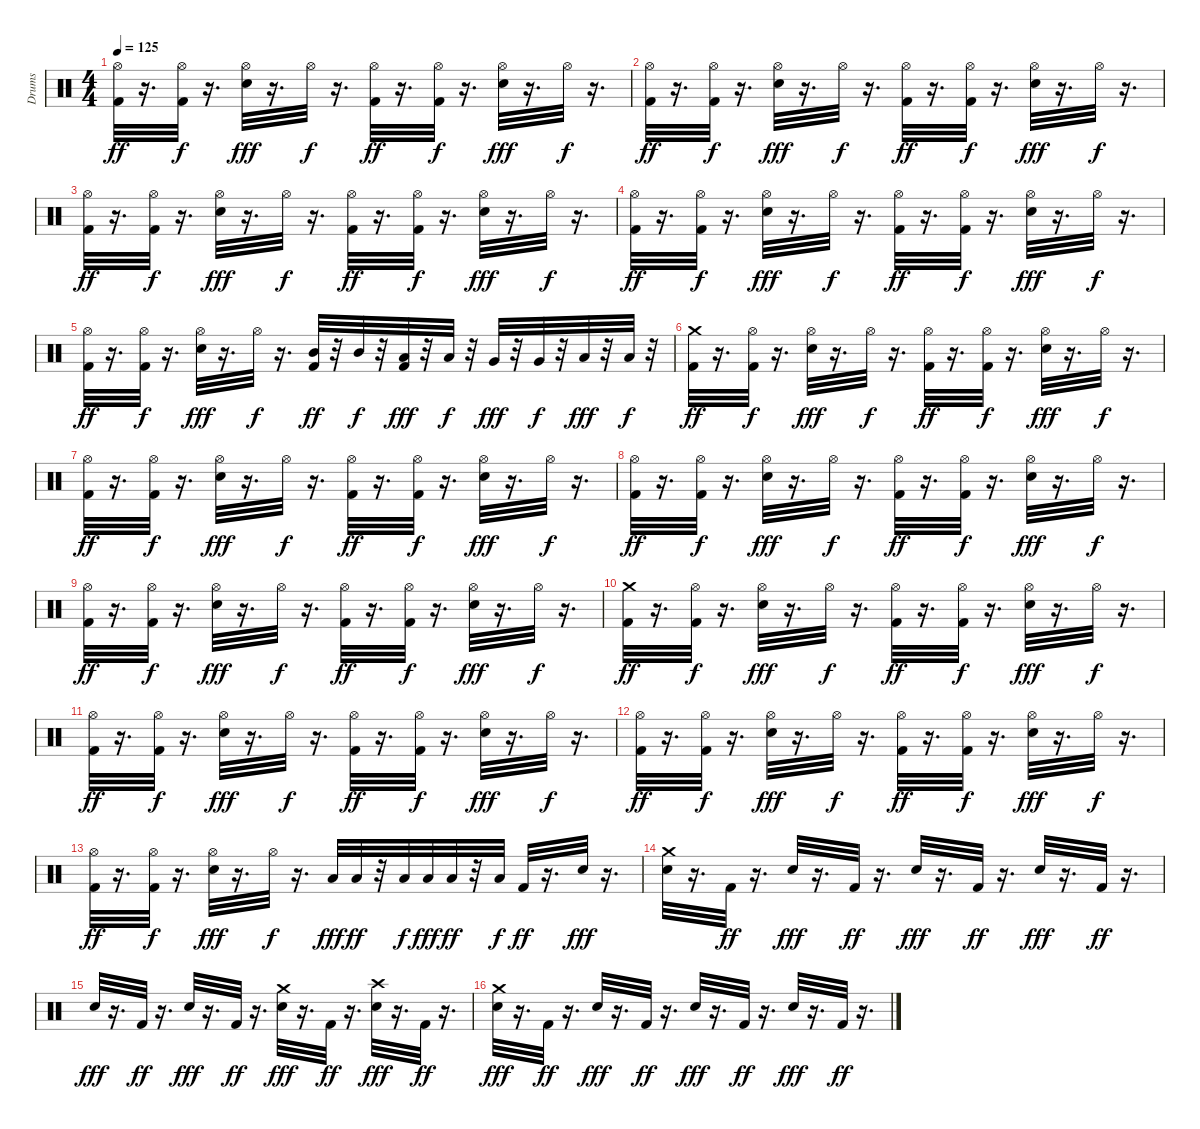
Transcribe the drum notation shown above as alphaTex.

\track ("Drums" "Drums") {instrument percussion}
\staff {score}
\articulation defaults
\ts (4 4)
\tempo 125
\clef neutral
\ks c
("Kick (hit) 2" "Hi-Hat (open)").32{dy ff} r.16{d} ("Kick (hit) 2" "Hi-Hat (open)").32{dy f} r.16{d} ("Snare (hit) 2" "Hi-Hat (open)").32{dy fff} r.16{d} "Hi-Hat (open)".32{dy f} r.16{d} ("Kick (hit) 2" "Hi-Hat (open)").32{dy ff} r.16{d} ("Kick (hit) 2" "Hi-Hat (open)").32{dy f} r.16{d} ("Snare (hit) 2" "Hi-Hat (open)").32{dy fff} r.16{d} "Hi-Hat (open)".32{dy f} r.16{d} |
("Kick (hit) 2" "Hi-Hat (open)").32{dy ff} r.16{d} ("Kick (hit) 2" "Hi-Hat (open)").32{dy f} r.16{d} ("Snare (hit) 2" "Hi-Hat (open)").32{dy fff} r.16{d} "Hi-Hat (open)".32{dy f} r.16{d} ("Kick (hit) 2" "Hi-Hat (open)").32{dy ff} r.16{d} ("Kick (hit) 2" "Hi-Hat (open)").32{dy f} r.16{d} ("Snare (hit) 2" "Hi-Hat (open)").32{dy fff} r.16{d} "Hi-Hat (open)".32{dy f} r.16{d} |
("Kick (hit) 2" "Hi-Hat (open)").32{dy ff} r.16{d} ("Kick (hit) 2" "Hi-Hat (open)").32{dy f} r.16{d} ("Snare (hit) 2" "Hi-Hat (open)").32{dy fff} r.16{d} "Hi-Hat (open)".32{dy f} r.16{d} ("Kick (hit) 2" "Hi-Hat (open)").32{dy ff} r.16{d} ("Kick (hit) 2" "Hi-Hat (open)").32{dy f} r.16{d} ("Snare (hit) 2" "Hi-Hat (open)").32{dy fff} r.16{d} "Hi-Hat (open)".32{dy f} r.16{d} |
("Kick (hit) 2" "Hi-Hat (open)").32{dy ff} r.16{d} ("Kick (hit) 2" "Hi-Hat (open)").32{dy f} r.16{d} ("Snare (hit) 2" "Hi-Hat (open)").32{dy fff} r.16{d} "Hi-Hat (open)".32{dy f} r.16{d} ("Kick (hit) 2" "Hi-Hat (open)").32{dy ff} r.16{d} ("Kick (hit) 2" "Hi-Hat (open)").32{dy f} r.16{d} ("Snare (hit) 2" "Hi-Hat (open)").32{dy fff} r.16{d} "Hi-Hat (open)".32{dy f} r.16{d} |
("Kick (hit) 2" "Hi-Hat (open)").32{dy ff} r.16{d} ("Kick (hit) 2" "Hi-Hat (open)").32{dy f} r.16{d} ("Snare (hit) 2" "Hi-Hat (open)").32{dy fff} r.16{d} "Hi-Hat (open)".32{dy f} r.16{d} ("Mid Tom (hit)" "Kick (hit) 2").32{dy ff} r.32 "Mid Tom (hit)".32{dy f} r.32 ("Low Tom (hit)" "Kick (hit) 2").32{dy fff} r.32 "Low Tom (hit)".32{dy f} r.32 "Very Low Tom (hit)".32{dy fff} r.32 "Very Low Tom (hit)".32{dy f} r.32 "Low Floor Tom (hit)".32{dy fff} r.32 "Low Floor Tom (hit)".32{dy f} r.32 |
("Crash medium (hit)" "Kick (hit) 2").32{dy ff} r.16{d} ("Kick (hit) 2" "Hi-Hat (open)").32{dy f} r.16{d} ("Snare (hit) 2" "Hi-Hat (open)").32{dy fff} r.16{d} "Hi-Hat (open)".32{dy f} r.16{d} ("Kick (hit) 2" "Hi-Hat (open)").32{dy ff} r.16{d} ("Kick (hit) 2" "Hi-Hat (open)").32{dy f} r.16{d} ("Snare (hit) 2" "Hi-Hat (open)").32{dy fff} r.16{d} "Hi-Hat (open)".32{dy f} r.16{d} |
("Kick (hit) 2" "Hi-Hat (open)").32{dy ff} r.16{d} ("Kick (hit) 2" "Hi-Hat (open)").32{dy f} r.16{d} ("Snare (hit) 2" "Hi-Hat (open)").32{dy fff} r.16{d} "Hi-Hat (open)".32{dy f} r.16{d} ("Kick (hit) 2" "Hi-Hat (open)").32{dy ff} r.16{d} ("Kick (hit) 2" "Hi-Hat (open)").32{dy f} r.16{d} ("Snare (hit) 2" "Hi-Hat (open)").32{dy fff} r.16{d} "Hi-Hat (open)".32{dy f} r.16{d} |
("Kick (hit) 2" "Hi-Hat (open)").32{dy ff} r.16{d} ("Kick (hit) 2" "Hi-Hat (open)").32{dy f} r.16{d} ("Snare (hit) 2" "Hi-Hat (open)").32{dy fff} r.16{d} "Hi-Hat (open)".32{dy f} r.16{d} ("Kick (hit) 2" "Hi-Hat (open)").32{dy ff} r.16{d} ("Kick (hit) 2" "Hi-Hat (open)").32{dy f} r.16{d} ("Snare (hit) 2" "Hi-Hat (open)").32{dy fff} r.16{d} "Hi-Hat (open)".32{dy f} r.16{d} |
("Kick (hit) 2" "Hi-Hat (open)").32{dy ff} r.16{d} ("Kick (hit) 2" "Hi-Hat (open)").32{dy f} r.16{d} ("Snare (hit) 2" "Hi-Hat (open)").32{dy fff} r.16{d} "Hi-Hat (open)".32{dy f} r.16{d} ("Kick (hit) 2" "Hi-Hat (open)").32{dy ff} r.16{d} ("Kick (hit) 2" "Hi-Hat (open)").32{dy f} r.16{d} ("Snare (hit) 2" "Hi-Hat (open)").32{dy fff} r.16{d} "Hi-Hat (open)".32{dy f} r.16{d} |
("Crash medium (hit)" "Kick (hit) 2").32{dy ff} r.16{d} ("Kick (hit) 2" "Hi-Hat (open)").32{dy f} r.16{d} ("Snare (hit) 2" "Hi-Hat (open)").32{dy fff} r.16{d} "Hi-Hat (open)".32{dy f} r.16{d} ("Kick (hit) 2" "Hi-Hat (open)").32{dy ff} r.16{d} ("Kick (hit) 2" "Hi-Hat (open)").32{dy f} r.16{d} ("Snare (hit) 2" "Hi-Hat (open)").32{dy fff} r.16{d} "Hi-Hat (open)".32{dy f} r.16{d} |
("Kick (hit) 2" "Hi-Hat (open)").32{dy ff} r.16{d} ("Kick (hit) 2" "Hi-Hat (open)").32{dy f} r.16{d} ("Snare (hit) 2" "Hi-Hat (open)").32{dy fff} r.16{d} "Hi-Hat (open)".32{dy f} r.16{d} ("Kick (hit) 2" "Hi-Hat (open)").32{dy ff} r.16{d} ("Kick (hit) 2" "Hi-Hat (open)").32{dy f} r.16{d} ("Snare (hit) 2" "Hi-Hat (open)").32{dy fff} r.16{d} "Hi-Hat (open)".32{dy f} r.16{d} |
("Kick (hit) 2" "Hi-Hat (open)").32{dy ff} r.16{d} ("Kick (hit) 2" "Hi-Hat (open)").32{dy f} r.16{d} ("Snare (hit) 2" "Hi-Hat (open)").32{dy fff} r.16{d} "Hi-Hat (open)".32{dy f} r.16{d} ("Kick (hit) 2" "Hi-Hat (open)").32{dy ff} r.16{d} ("Kick (hit) 2" "Hi-Hat (open)").32{dy f} r.16{d} ("Snare (hit) 2" "Hi-Hat (open)").32{dy fff} r.16{d} "Hi-Hat (open)".32{dy f} r.16{d} |
("Kick (hit) 2" "Hi-Hat (open)").32{dy ff} r.16{d} ("Kick (hit) 2" "Hi-Hat (open)").32{dy f} r.16{d} ("Snare (hit) 2" "Hi-Hat (open)").32{dy fff} r.16{d} "Hi-Hat (open)".32{dy f} r.16{d} "Low Tom (hit)".32{dy fff} "Low Tom (hit)".32{dy ff} r.32 "Low Tom (hit)".32{dy f} "Low Floor Tom (hit)".32{dy fff} "Low Floor Tom (hit)".32{dy ff} r.32 "Low Floor Tom (hit)".32{dy f} "Kick (hit) 2".32{dy ff} r.16{d} "Snare (hit) 2".32{dy fff} r.16{d} |
("Crash medium (hit)" "Snare (hit) 2").32 r.16{d} "Kick (hit) 2".32{dy ff} r.16{d} "Snare (hit) 2".32{dy fff} r.16{d} "Kick (hit) 2".32{dy ff} r.16{d} "Snare (hit) 2".32{dy fff} r.16{d} "Kick (hit) 2".32{dy ff} r.16{d} "Snare (hit) 2".32{dy fff} r.16{d} "Kick (hit) 2".32{dy ff} r.16{d} |
"Snare (hit) 2".32{dy fff} r.16{d} "Kick (hit) 2".32{dy ff} r.16{d} "Snare (hit) 2".32{dy fff} r.16{d} "Kick (hit) 2".32{dy ff} r.16{d} ("Crash medium (hit)" "Snare (hit) 2").32{dy fff} r.16{d} "Kick (hit) 2".32{dy ff} r.16{d} ("Crash high (hit)" "Snare (hit) 2").32{dy fff} r.16{d} "Kick (hit) 2".32{dy ff} r.16{d} |
("Snare (hit) 2" "Crash medium (hit)").32{dy fff} r.16{d} "Kick (hit) 2".32{dy ff} r.16{d} "Snare (hit) 2".32{dy fff} r.16{d} "Kick (hit) 2".32{dy ff} r.16{d} "Snare (hit) 2".32{dy fff} r.16{d} "Kick (hit) 2".32{dy ff} r.16{d} "Snare (hit) 2".32{dy fff} r.16{d} "Kick (hit) 2".32{dy ff} r.16{d}
